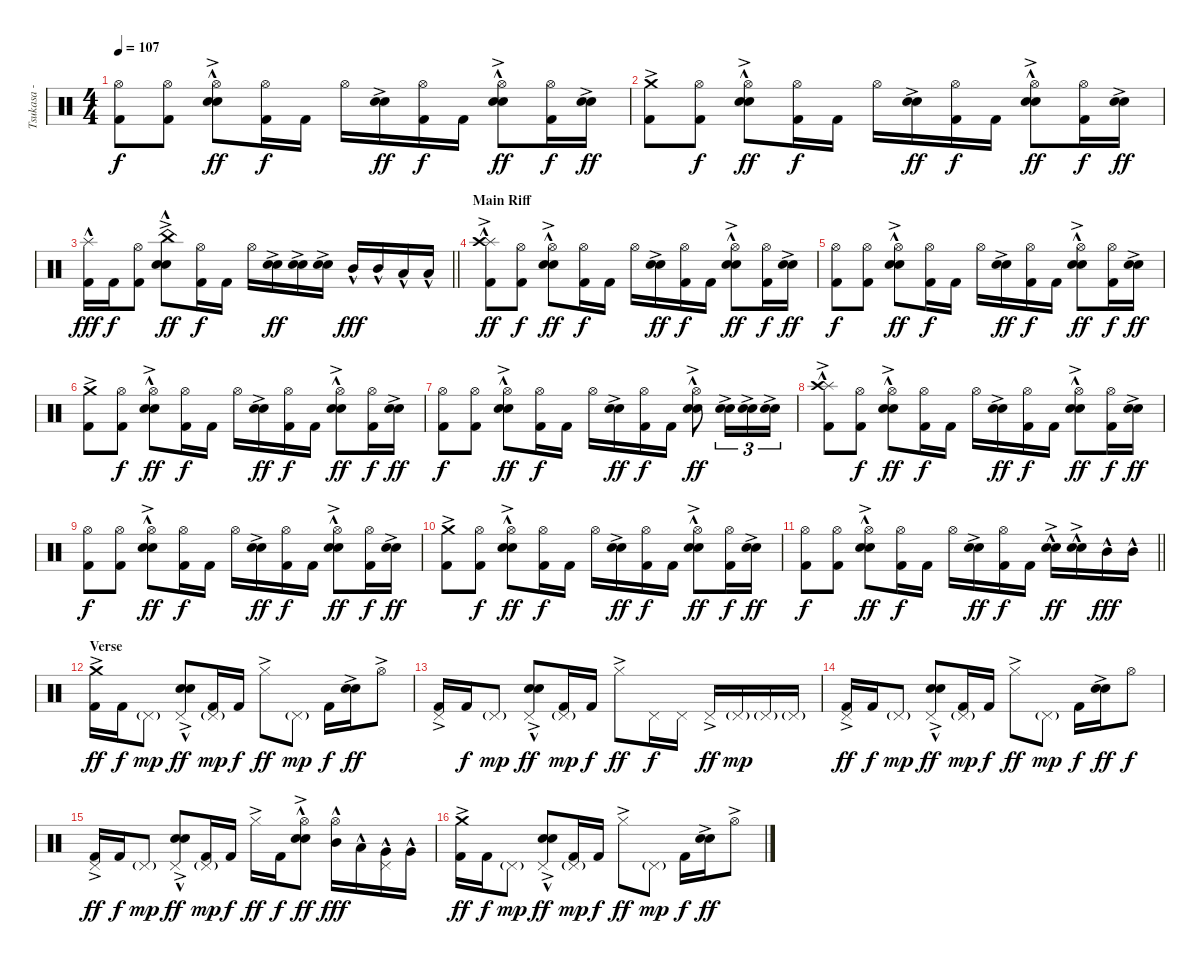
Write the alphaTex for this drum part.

\track ("Tsukasa - Drums" "Tsukasa - ") {instrument percussion}
\staff {score}
\articulation defaults
\ts (4 4)
\tempo 107
\clef neutral
\ks c
("Hi-Hat (open)" "Kick (hit) 2").8{dy f} ("Hi-Hat (open)" "Kick (hit) 2").8 ("Hi-Hat (open)" "Electric Snare (hit)"{hac} "Snare (hit) 2"{ac}).8{dy ff} ("Hi-Hat (open)" "Kick (hit) 2").16{dy f} "Kick (hit) 2".16 "Hi-Hat (open)".16 ("Electric Snare (hit)"{ac} "Snare (hit) 2").16{dy ff} ("Hi-Hat (open)" "Kick (hit) 2").16{dy f} "Kick (hit) 2".16 ("Hi-Hat (open)" "Electric Snare (hit)"{hac} "Snare (hit) 2"{ac}).8{dy ff} ("Hi-Hat (open)" "Kick (hit) 2").16{dy f} ("Electric Snare (hit)"{ac} "Snare (hit) 2").16{dy ff} |
("Crash medium (hit)"{ac} "Kick (hit) 2").8 ("Hi-Hat (open)" "Kick (hit) 2").8{dy f} ("Hi-Hat (open)" "Electric Snare (hit)"{hac} "Snare (hit) 2"{ac}).8{dy ff} ("Hi-Hat (open)" "Kick (hit) 2").16{dy f} "Kick (hit) 2".16 "Hi-Hat (open)".16 ("Electric Snare (hit)"{ac} "Snare (hit) 2").16{dy ff} ("Hi-Hat (open)" "Kick (hit) 2").16{dy f} "Kick (hit) 2".16 ("Hi-Hat (open)" "Electric Snare (hit)"{hac} "Snare (hit) 2"{ac}).8{dy ff} ("Hi-Hat (open)" "Kick (hit) 2").16{dy f} ("Electric Snare (hit)"{ac} "Snare (hit) 2").16{dy ff} |
\barLineRight lightlight
("Splash (hit)"{hac} "Kick (hit) 2").16{dy fff} "Kick (hit) 2".16{dy f} ("Hi-Hat (open)" "Kick (hit) 2").8 ("China (hit)"{ac} "Electric Snare (hit)"{hac} "Snare (hit) 2"{ac}).8{dy ff} ("Hi-Hat (open)" "Kick (hit) 2").16{dy f} "Kick (hit) 2".16 "Hi-Hat (open)".16 ("Electric Snare (hit)"{ac} "Snare (hit) 2").16{dy ff} ("Electric Snare (hit)"{ac} "Snare (hit) 2").16 ("Electric Snare (hit)"{ac} "Snare (hit) 2").16 "Mid Tom (hit)"{hac}.16{dy fff} "Mid Tom (hit)"{hac}.16 "Low Tom (hit)"{hac}.16 "Low Tom (hit)"{hac}.16 |
\section ("" "Main Riff")
("Splash (hit)"{hac} "Crash high (hit)"{ac} "Kick (hit) 2").8{dy ff} ("Hi-Hat (open)" "Kick (hit) 2").8{dy f} ("Hi-Hat (open)" "Electric Snare (hit)"{hac} "Snare (hit) 2"{ac}).8{dy ff} ("Hi-Hat (open)" "Kick (hit) 2").16{dy f} "Kick (hit) 2".16 "Hi-Hat (open)".16 ("Electric Snare (hit)"{ac} "Snare (hit) 2").16{dy ff} ("Hi-Hat (open)" "Kick (hit) 2").16{dy f} "Kick (hit) 2".16 ("Hi-Hat (open)" "Electric Snare (hit)"{hac} "Snare (hit) 2"{ac}).8{dy ff} ("Hi-Hat (open)" "Kick (hit) 2").16{dy f} ("Electric Snare (hit)"{ac} "Snare (hit) 2").16{dy ff} |
("Hi-Hat (open)" "Kick (hit) 2").8{dy f} ("Hi-Hat (open)" "Kick (hit) 2").8 ("Hi-Hat (open)" "Electric Snare (hit)"{hac} "Snare (hit) 2"{ac}).8{dy ff} ("Hi-Hat (open)" "Kick (hit) 2").16{dy f} "Kick (hit) 2".16 "Hi-Hat (open)".16 ("Electric Snare (hit)"{ac} "Snare (hit) 2").16{dy ff} ("Hi-Hat (open)" "Kick (hit) 2").16{dy f} "Kick (hit) 2".16 ("Hi-Hat (open)" "Electric Snare (hit)"{hac} "Snare (hit) 2"{ac}).8{dy ff} ("Hi-Hat (open)" "Kick (hit) 2").16{dy f} ("Electric Snare (hit)"{ac} "Snare (hit) 2").16{dy ff} |
("Crash medium (hit)"{ac} "Kick (hit) 2").8 ("Hi-Hat (open)" "Kick (hit) 2").8{dy f} ("Hi-Hat (open)" "Electric Snare (hit)"{hac} "Snare (hit) 2"{ac}).8{dy ff} ("Hi-Hat (open)" "Kick (hit) 2").16{dy f} "Kick (hit) 2".16 "Hi-Hat (open)".16 ("Electric Snare (hit)"{ac} "Snare (hit) 2").16{dy ff} ("Hi-Hat (open)" "Kick (hit) 2").16{dy f} "Kick (hit) 2".16 ("Hi-Hat (open)" "Electric Snare (hit)"{hac} "Snare (hit) 2"{ac}).8{dy ff} ("Hi-Hat (open)" "Kick (hit) 2").16{dy f} ("Electric Snare (hit)"{ac} "Snare (hit) 2").16{dy ff} |
("Hi-Hat (open)" "Kick (hit) 2").8{dy f} ("Hi-Hat (open)" "Kick (hit) 2").8 ("Hi-Hat (open)" "Electric Snare (hit)"{hac} "Snare (hit) 2"{ac}).8{dy ff} ("Hi-Hat (open)" "Kick (hit) 2").16{dy f} "Kick (hit) 2".16 "Hi-Hat (open)".16 ("Electric Snare (hit)"{ac} "Snare (hit) 2").16{dy ff} ("Hi-Hat (open)" "Kick (hit) 2").16{dy f} "Kick (hit) 2".16 ("Hi-Hat (open)" "Electric Snare (hit)"{hac} "Snare (hit) 2"{ac}).8{dy ff} ("Electric Snare (hit)"{ac} "Snare (hit) 2"{ac}).16{tu (3 2)} ("Electric Snare (hit)"{ac} "Snare (hit) 2"{ac}).16{tu (3 2)} ("Electric Snare (hit)"{ac} "Snare (hit) 2"{ac}).16{tu (3 2)} |
("Splash (hit)"{hac} "Crash high (hit)"{ac} "Kick (hit) 2").8 ("Hi-Hat (open)" "Kick (hit) 2").8{dy f} ("Hi-Hat (open)" "Electric Snare (hit)"{hac} "Snare (hit) 2"{ac}).8{dy ff} ("Hi-Hat (open)" "Kick (hit) 2").16{dy f} "Kick (hit) 2".16 "Hi-Hat (open)".16 ("Electric Snare (hit)"{ac} "Snare (hit) 2").16{dy ff} ("Hi-Hat (open)" "Kick (hit) 2").16{dy f} "Kick (hit) 2".16 ("Hi-Hat (open)" "Electric Snare (hit)"{hac} "Snare (hit) 2"{ac}).8{dy ff} ("Hi-Hat (open)" "Kick (hit) 2").16{dy f} ("Electric Snare (hit)"{ac} "Snare (hit) 2").16{dy ff} |
("Hi-Hat (open)" "Kick (hit) 2").8{dy f} ("Hi-Hat (open)" "Kick (hit) 2").8 ("Hi-Hat (open)" "Electric Snare (hit)"{hac} "Snare (hit) 2"{ac}).8{dy ff} ("Hi-Hat (open)" "Kick (hit) 2").16{dy f} "Kick (hit) 2".16 "Hi-Hat (open)".16 ("Electric Snare (hit)"{ac} "Snare (hit) 2").16{dy ff} ("Hi-Hat (open)" "Kick (hit) 2").16{dy f} "Kick (hit) 2".16 ("Hi-Hat (open)" "Electric Snare (hit)"{hac} "Snare (hit) 2"{ac}).8{dy ff} ("Hi-Hat (open)" "Kick (hit) 2").16{dy f} ("Electric Snare (hit)"{ac} "Snare (hit) 2").16{dy ff} |
("Crash medium (hit)"{ac} "Kick (hit) 2").8 ("Hi-Hat (open)" "Kick (hit) 2").8{dy f} ("Hi-Hat (open)" "Electric Snare (hit)"{hac} "Snare (hit) 2"{ac}).8{dy ff} ("Hi-Hat (open)" "Kick (hit) 2").16{dy f} "Kick (hit) 2".16 "Hi-Hat (open)".16 ("Electric Snare (hit)"{ac} "Snare (hit) 2").16{dy ff} ("Hi-Hat (open)" "Kick (hit) 2").16{dy f} "Kick (hit) 2".16 ("Hi-Hat (open)" "Electric Snare (hit)"{hac} "Snare (hit) 2"{ac}).8{dy ff} ("Hi-Hat (open)" "Kick (hit) 2").16{dy f} ("Electric Snare (hit)"{ac} "Snare (hit) 2").16{dy ff} |
\barLineRight lightlight
("Hi-Hat (open)" "Kick (hit) 2").8{dy f} ("Hi-Hat (open)" "Kick (hit) 2").8 ("Hi-Hat (open)" "Electric Snare (hit)"{hac} "Snare (hit) 2"{ac}).8{dy ff} ("Hi-Hat (open)" "Kick (hit) 2").16{dy f} "Kick (hit) 2".16 "Hi-Hat (open)".16 ("Electric Snare (hit)"{ac} "Snare (hit) 2").16{dy ff} ("Hi-Hat (open)" "Kick (hit) 2").16{dy f} "Kick (hit) 2".16 ("Electric Snare (hit)"{hac} "Snare (hit) 2"{ac}).16{dy ff} ("Electric Snare (hit)"{hac} "Snare (hit) 2"{ac}).16 "Mid Tom (hit)"{hac}.16{dy fff} "Mid Tom (hit)"{hac}.16 |
\section ("" "Verse")
("Crash medium (hit)"{ac} "Kick (hit) 2").16{dy ff} "Kick (hit) 2".16{dy f} "Pedal Hi-Hat (hit)"{g}.8{dy mp} ("Pedal Hi-Hat (hit)"{ac} "Electric Snare (hit)"{hac} "Snare (hit) 2"{ac}).8{dy ff} ("Pedal Hi-Hat (hit)"{g} "Kick (hit) 2").16{dy mp} "Kick (hit) 2".16{dy f} "Hi-Hat (closed)"{ac}.8{dy ff} "Pedal Hi-Hat (hit)"{g}.8{dy mp} "Kick (hit) 2".16{dy f} ("Electric Snare (hit)"{ac} "Snare (hit) 2"{ac}).16{dy ff} "Hi-Hat (open)"{ac}.8 |
("Pedal Hi-Hat (hit)"{ac} "Kick (hit) 2").16 "Kick (hit) 2".16{dy f} "Pedal Hi-Hat (hit)"{g}.8{dy mp} ("Pedal Hi-Hat (hit)"{ac} "Electric Snare (hit)"{hac} "Snare (hit) 2"{ac}).8{dy ff} ("Pedal Hi-Hat (hit)"{g} "Kick (hit) 2").16{dy mp} "Kick (hit) 2".16{dy f} "Hi-Hat (closed)"{ac}.8{dy ff} "Pedal Hi-Hat (hit)".16{dy f} "Pedal Hi-Hat (hit)".16 "Pedal Hi-Hat (hit)"{ac}.16{dy ff} "Pedal Hi-Hat (hit)"{g}.16{dy mp} "Pedal Hi-Hat (hit)"{g}.16 "Pedal Hi-Hat (hit)"{g}.16 |
("Pedal Hi-Hat (hit)"{ac} "Kick (hit) 2").16{dy ff} "Kick (hit) 2".16{dy f} "Pedal Hi-Hat (hit)"{g}.8{dy mp} ("Pedal Hi-Hat (hit)"{ac} "Electric Snare (hit)"{hac} "Snare (hit) 2"{ac}).8{dy ff} ("Pedal Hi-Hat (hit)"{g} "Kick (hit) 2").16{dy mp} "Kick (hit) 2".16{dy f} "Hi-Hat (closed)"{ac}.8{dy ff} "Pedal Hi-Hat (hit)"{g}.8{dy mp} "Kick (hit) 2".16{dy f} ("Electric Snare (hit)"{ac} "Snare (hit) 2"{ac}).16{dy ff} "Hi-Hat (open)".8{dy f} |
("Pedal Hi-Hat (hit)"{ac} "Kick (hit) 2").16{dy ff} "Kick (hit) 2".16{dy f} "Pedal Hi-Hat (hit)"{g}.8{dy mp} ("Pedal Hi-Hat (hit)"{ac} "Electric Snare (hit)"{hac} "Snare (hit) 2"{ac}).8{dy ff} ("Pedal Hi-Hat (hit)"{g} "Kick (hit) 2").16{dy mp} "Kick (hit) 2".16{dy f} "Hi-Hat (closed)"{ac}.16{dy ff} "Kick (hit) 2".16{dy f} ("Hi-Hat (open)" "Electric Snare (hit)"{hac} "Snare (hit) 2"{ac}).8{dy ff} ("Hi-Hat (open)" "Mid Tom (hit)"{hac}).16{dy fff} "Low Tom (hit)"{hac}.16 ("Pedal Hi-Hat (hit)" "Very Low Tom (hit)"{hac}).16 "Very Low Tom (hit)"{hac}.16 |
("Crash medium (hit)"{ac} "Kick (hit) 2").16{dy ff} "Kick (hit) 2".16{dy f} "Pedal Hi-Hat (hit)"{g}.8{dy mp} ("Pedal Hi-Hat (hit)"{ac} "Electric Snare (hit)"{hac} "Snare (hit) 2"{ac}).8{dy ff} ("Pedal Hi-Hat (hit)"{g} "Kick (hit) 2").16{dy mp} "Kick (hit) 2".16{dy f} "Hi-Hat (closed)"{ac}.8{dy ff} "Pedal Hi-Hat (hit)"{g}.8{dy mp} "Kick (hit) 2".16{dy f} ("Electric Snare (hit)"{ac} "Snare (hit) 2"{ac}).16{dy ff} "Hi-Hat (open)"{ac}.8
